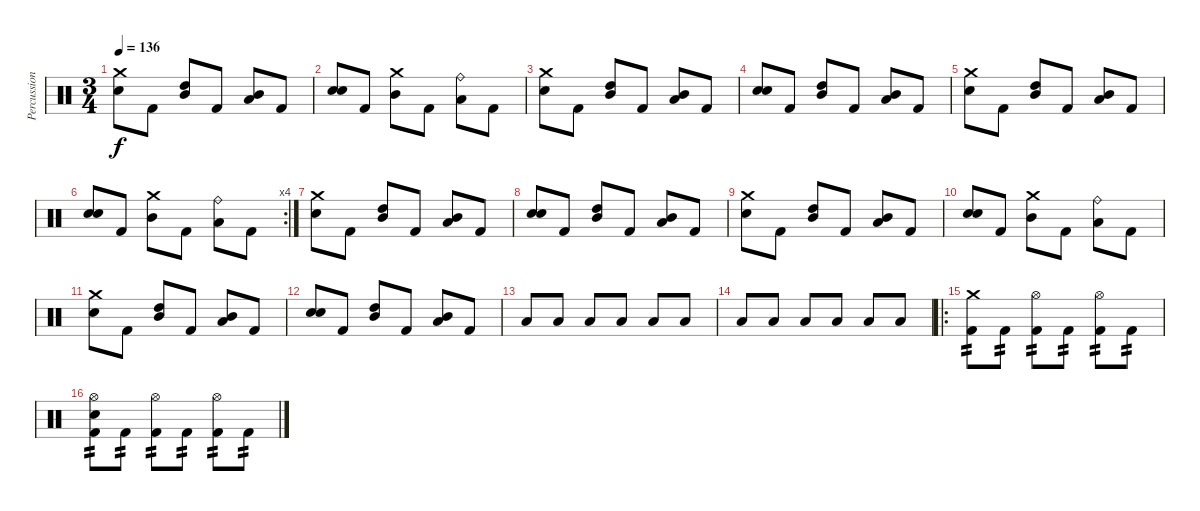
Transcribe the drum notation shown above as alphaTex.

\track ("Percussion" "Percussion") {instrument percussion}
\staff {score}
\articulation defaults
\ts (3 4)
\tempo 136
\clef neutral
\ks c
("Crash medium (hit)" "Electric Snare (hit)").8{dy f} "Kick (hit) 2".8 ("High Tom (hit)" "Mid Tom (hit)").8 "Kick (hit) 2".8 ("Mid Tom (hit)" "Low Tom (hit)").8 "Kick (hit) 2".8 |
("Electric Snare (hit)" "Electric Snare (hit)").8 "Kick (hit) 2".8 ("Crash medium (hit)" "Mid Tom (hit)").8 "Kick (hit) 2".8 ("Ride (bell)" "Low Tom (hit)").8 "Kick (hit) 2".8 |
("Crash medium (hit)" "Electric Snare (hit)").8 "Kick (hit) 2".8 ("High Tom (hit)" "Mid Tom (hit)").8 "Kick (hit) 2".8 ("Mid Tom (hit)" "Low Tom (hit)").8 "Kick (hit) 2".8 |
("Electric Snare (hit)" "Electric Snare (hit)").8 "Kick (hit) 2".8 ("High Tom (hit)" "Mid Tom (hit)").8 "Kick (hit) 2".8 ("Mid Tom (hit)" "Low Tom (hit)").8 "Kick (hit) 2".8 |
("Crash medium (hit)" "Electric Snare (hit)").8 "Kick (hit) 2".8 ("High Tom (hit)" "Mid Tom (hit)").8 "Kick (hit) 2".8 ("Mid Tom (hit)" "Low Tom (hit)").8 "Kick (hit) 2".8 |
\rc 4
("Electric Snare (hit)" "Electric Snare (hit)").8 "Kick (hit) 2".8 ("Crash medium (hit)" "Mid Tom (hit)").8 "Kick (hit) 2".8 ("Ride (bell)" "Low Tom (hit)").8 "Kick (hit) 2".8 |
("Crash medium (hit)" "Electric Snare (hit)").8 "Kick (hit) 2".8 ("High Tom (hit)" "Mid Tom (hit)").8 "Kick (hit) 2".8 ("Mid Tom (hit)" "Low Tom (hit)").8 "Kick (hit) 2".8 |
("Electric Snare (hit)" "Electric Snare (hit)").8 "Kick (hit) 2".8 ("High Tom (hit)" "Mid Tom (hit)").8 "Kick (hit) 2".8 ("Mid Tom (hit)" "Low Tom (hit)").8 "Kick (hit) 2".8 |
("Crash medium (hit)" "Electric Snare (hit)").8 "Kick (hit) 2".8 ("High Tom (hit)" "Mid Tom (hit)").8 "Kick (hit) 2".8 ("Mid Tom (hit)" "Low Tom (hit)").8 "Kick (hit) 2".8 |
("Electric Snare (hit)" "Electric Snare (hit)").8 "Kick (hit) 2".8 ("Crash medium (hit)" "Mid Tom (hit)").8 "Kick (hit) 2".8 ("Ride (bell)" "Low Tom (hit)").8 "Kick (hit) 2".8 |
("Crash medium (hit)" "Electric Snare (hit)").8 "Kick (hit) 2".8 ("High Tom (hit)" "Mid Tom (hit)").8 "Kick (hit) 2".8 ("Mid Tom (hit)" "Low Tom (hit)").8 "Kick (hit) 2".8 |
("Electric Snare (hit)" "Electric Snare (hit)").8 "Kick (hit) 2".8 ("High Tom (hit)" "Mid Tom (hit)").8 "Kick (hit) 2".8 ("Mid Tom (hit)" "Low Tom (hit)").8 "Kick (hit) 2".8 |
"Low Tom (hit)".8 "Low Tom (hit)".8 "Low Tom (hit)".8 "Low Tom (hit)".8 "Low Tom (hit)".8 "Low Tom (hit)".8 |
"Low Tom (hit)".8 "Low Tom (hit)".8 "Low Tom (hit)".8 "Low Tom (hit)".8 "Low Tom (hit)".8 "Low Tom (hit)".8 |
\ro
("Crash medium (hit)" "Kick (hit) 2").8{tp 2} "Kick (hit) 2".8{tp 2} ("Hi-Hat (open)" "Kick (hit) 2").8{tp 2} "Kick (hit) 2".8{tp 2} ("Hi-Hat (open)" "Kick (hit) 2").8{tp 2} "Kick (hit) 2".8{tp 2} |
("Hi-Hat (open)" "Electric Snare (hit)" "Kick (hit) 2").8{tp 2} "Kick (hit) 2".8{tp 2} ("Hi-Hat (open)" "Kick (hit) 2").8{tp 2} "Kick (hit) 2".8{tp 2} ("Hi-Hat (open)" "Kick (hit) 2").8{tp 2} "Kick (hit) 2".8{tp 2}
